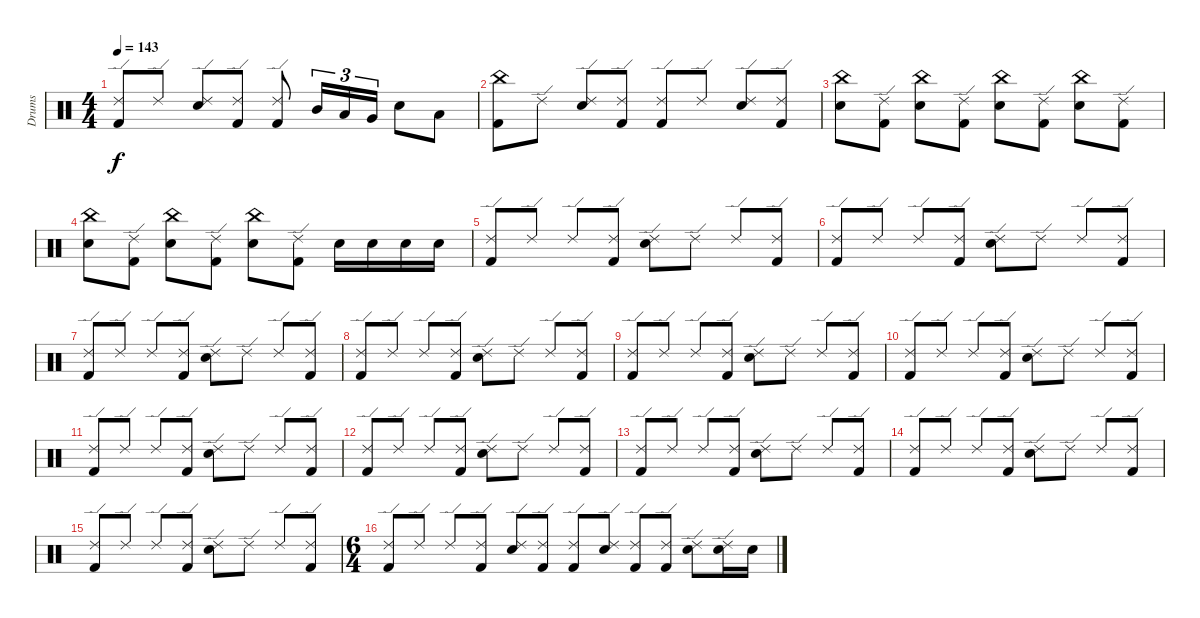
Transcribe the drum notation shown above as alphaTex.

\track ("Drums" "Drums") {instrument percussion}
\staff {score}
\articulation defaults
\ts (4 4)
\tempo 143
\clef neutral
\ks c
("Ride (edge) 2" "Kick (hit) 2").8{dy f} "Ride (edge) 2".8 ("Ride (edge) 2" "Electric Snare (hit)").8 ("Ride (edge) 2" "Kick (hit) 2").8 ("Ride (edge) 2" "Kick (hit) 2").8 "Mid Tom (hit)".16{tu (3 2)} "Low Tom (hit)".16{tu (3 2)} "Very Low Tom (hit)".16{tu (3 2)} "Electric Snare (hit)".8 "Low Tom (hit)".8 |
("China (hit)" "Kick (hit) 2").8 "Ride (edge) 2".8 ("Ride (edge) 2" "Electric Snare (hit)").8 ("Ride (edge) 2" "Kick (hit) 2").8 ("Ride (edge) 2" "Kick (hit) 2").8 "Ride (edge) 2".8 ("Ride (edge) 2" "Electric Snare (hit)").8 ("Ride (edge) 2" "Kick (hit) 2").8 |
("China (hit)" "Electric Snare (hit)").8 ("Ride (edge) 2" "Kick (hit) 2").8 ("China (hit)" "Electric Snare (hit)").8 ("Ride (edge) 2" "Kick (hit) 2").8 ("China (hit)" "Electric Snare (hit)").8 ("Ride (edge) 2" "Kick (hit) 2").8 ("China (hit)" "Electric Snare (hit)").8 ("Ride (edge) 2" "Kick (hit) 2").8 |
("China (hit)" "Electric Snare (hit)").8 ("Ride (edge) 2" "Kick (hit) 2").8 ("China (hit)" "Electric Snare (hit)").8 ("Ride (edge) 2" "Kick (hit) 2").8 ("China (hit)" "Electric Snare (hit)").8 ("Ride (edge) 2" "Kick (hit) 2").8 "Electric Snare (hit)".16 "Electric Snare (hit)".16 "Electric Snare (hit)".16 "Electric Snare (hit)".16 |
("Ride (edge) 2" "Kick (hit) 2").8{volume 13} "Ride (edge) 2".8 "Ride (edge) 2".8 ("Ride (edge) 2" "Kick (hit) 2").8 ("Ride (edge) 2" "Electric Snare (hit)").8 "Ride (edge) 2".8 "Ride (edge) 2".8 ("Ride (edge) 2" "Kick (hit) 2").8 |
("Ride (edge) 2" "Kick (hit) 2").8 "Ride (edge) 2".8 "Ride (edge) 2".8 ("Ride (edge) 2" "Kick (hit) 2").8 ("Ride (edge) 2" "Electric Snare (hit)").8 "Ride (edge) 2".8 "Ride (edge) 2".8 ("Ride (edge) 2" "Kick (hit) 2").8 |
("Ride (edge) 2" "Kick (hit) 2").8 "Ride (edge) 2".8 "Ride (edge) 2".8 ("Ride (edge) 2" "Kick (hit) 2").8 ("Ride (edge) 2" "Electric Snare (hit)").8 "Ride (edge) 2".8 "Ride (edge) 2".8 ("Ride (edge) 2" "Kick (hit) 2").8 |
("Ride (edge) 2" "Kick (hit) 2").8 "Ride (edge) 2".8 "Ride (edge) 2".8 ("Ride (edge) 2" "Kick (hit) 2").8 ("Ride (edge) 2" "Electric Snare (hit)").8 "Ride (edge) 2".8 "Ride (edge) 2".8 ("Ride (edge) 2" "Kick (hit) 2").8 |
("Ride (edge) 2" "Kick (hit) 2").8{volume 13} "Ride (edge) 2".8 "Ride (edge) 2".8 ("Ride (edge) 2" "Kick (hit) 2").8 ("Ride (edge) 2" "Electric Snare (hit)").8 "Ride (edge) 2".8 "Ride (edge) 2".8 ("Ride (edge) 2" "Kick (hit) 2").8 |
("Ride (edge) 2" "Kick (hit) 2").8 "Ride (edge) 2".8 "Ride (edge) 2".8 ("Ride (edge) 2" "Kick (hit) 2").8 ("Ride (edge) 2" "Electric Snare (hit)").8 "Ride (edge) 2".8 "Ride (edge) 2".8 ("Ride (edge) 2" "Kick (hit) 2").8 |
("Ride (edge) 2" "Kick (hit) 2").8 "Ride (edge) 2".8 "Ride (edge) 2".8 ("Ride (edge) 2" "Kick (hit) 2").8 ("Ride (edge) 2" "Electric Snare (hit)").8 "Ride (edge) 2".8 "Ride (edge) 2".8 ("Ride (edge) 2" "Kick (hit) 2").8 |
("Ride (edge) 2" "Kick (hit) 2").8 "Ride (edge) 2".8 "Ride (edge) 2".8 ("Ride (edge) 2" "Kick (hit) 2").8 ("Ride (edge) 2" "Electric Snare (hit)").8 "Ride (edge) 2".8 "Ride (edge) 2".8 ("Ride (edge) 2" "Kick (hit) 2").8 |
("Ride (edge) 2" "Kick (hit) 2").8 "Ride (edge) 2".8 "Ride (edge) 2".8 ("Ride (edge) 2" "Kick (hit) 2").8 ("Ride (edge) 2" "Electric Snare (hit)").8 "Ride (edge) 2".8 "Ride (edge) 2".8 ("Ride (edge) 2" "Kick (hit) 2").8 |
("Ride (edge) 2" "Kick (hit) 2").8 "Ride (edge) 2".8 "Ride (edge) 2".8 ("Ride (edge) 2" "Kick (hit) 2").8 ("Ride (edge) 2" "Electric Snare (hit)").8 "Ride (edge) 2".8 "Ride (edge) 2".8 ("Ride (edge) 2" "Kick (hit) 2").8 |
("Ride (edge) 2" "Kick (hit) 2").8 "Ride (edge) 2".8 "Ride (edge) 2".8 ("Ride (edge) 2" "Kick (hit) 2").8 ("Ride (edge) 2" "Electric Snare (hit)").8 "Ride (edge) 2".8 "Ride (edge) 2".8 ("Ride (edge) 2" "Kick (hit) 2").8 |
\ts (6 4)
("Ride (edge) 2" "Kick (hit) 2").8 "Ride (edge) 2".8 "Ride (edge) 2".8 ("Ride (edge) 2" "Kick (hit) 2").8 ("Ride (edge) 2" "Electric Snare (hit)").8 ("Ride (edge) 2" "Kick (hit) 2").8 ("Ride (edge) 2" "Kick (hit) 2").8 ("Ride (edge) 2" "Electric Snare (hit)").8 ("Ride (edge) 2" "Kick (hit) 2").8 ("Ride (edge) 2" "Kick (hit) 2").8 ("Ride (edge) 2" "Electric Snare (hit)").8 ("Ride (edge) 2" "Electric Snare (hit)").16 "Electric Snare (hit)".16
